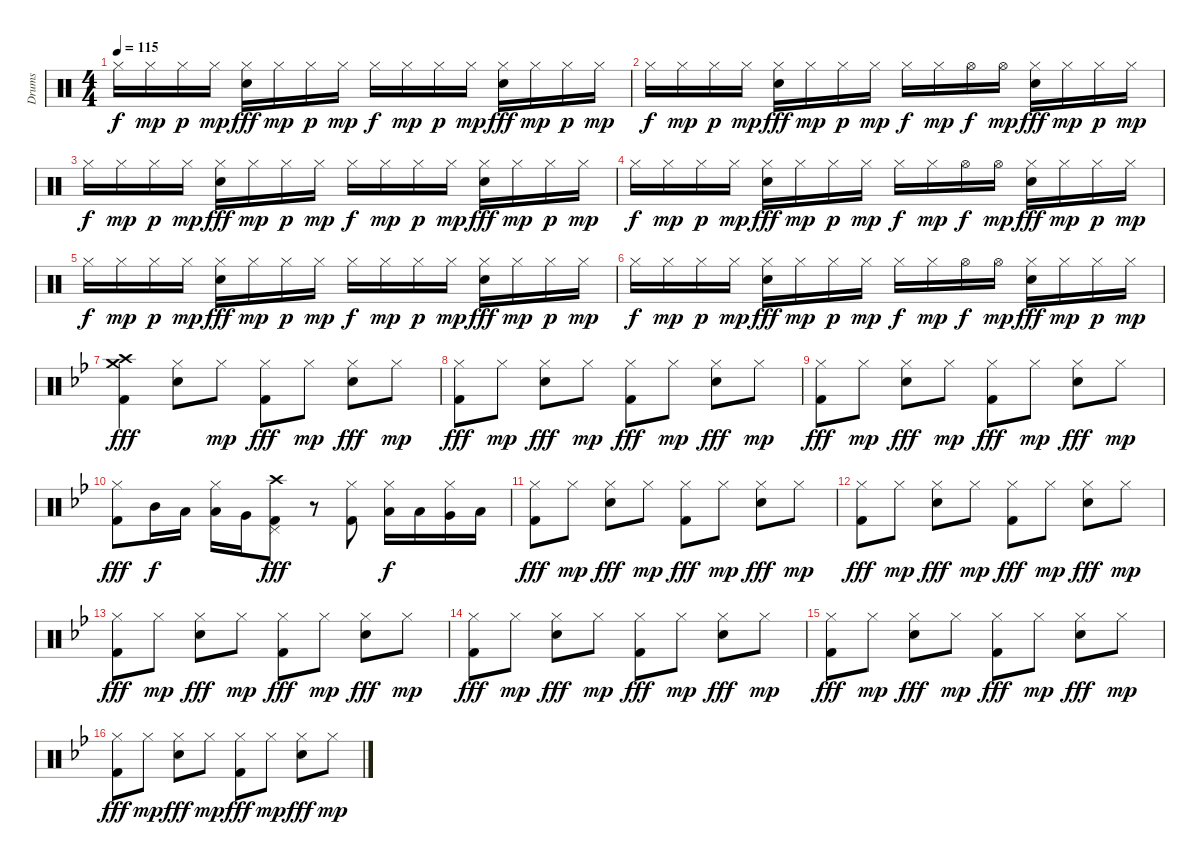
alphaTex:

\track ("Drums" "Drums") {instrument percussion}
\staff {score}
\articulation defaults
\ts (4 4)
\tempo 115
\clef neutral
\ks c "Hi-Hat (closed)".16{dy f} "Hi-Hat (closed)".16{dy mp} "Hi-Hat (closed)".16{dy p} "Hi-Hat (closed)".16{dy mp}
("Hi-Hat (closed)" "Electric Snare (hit)").16{dy fff} "Hi-Hat (closed)".16{dy mp} "Hi-Hat (closed)".16{dy p} "Hi-Hat (closed)".16{dy mp} "Hi-Hat (closed)".16{dy f} "Hi-Hat (closed)".16{dy mp} "Hi-Hat (closed)".16{dy p} "Hi-Hat (closed)".16{dy mp} ("Hi-Hat (closed)" "Electric Snare (hit)").16{dy fff} "Hi-Hat (closed)".16{dy mp} "Hi-Hat (closed)".16{dy p} "Hi-Hat (closed)".16{dy mp} |
"Hi-Hat (closed)".16{dy f} "Hi-Hat (closed)".16{dy mp} "Hi-Hat (closed)".16{dy p} "Hi-Hat (closed)".16{dy mp} ("Hi-Hat (closed)" "Electric Snare (hit)").16{dy fff} "Hi-Hat (closed)".16{dy mp} "Hi-Hat (closed)".16{dy p} "Hi-Hat (closed)".16{dy mp} "Hi-Hat (closed)".16{dy f} "Hi-Hat (closed)".16{dy mp} "Hi-Hat (open)".16{dy f} "Hi-Hat (open)".16{dy mp} ("Hi-Hat (closed)" "Electric Snare (hit)").16{dy fff} "Hi-Hat (closed)".16{dy mp} "Hi-Hat (closed)".16{dy p} "Hi-Hat (closed)".16{dy mp} |
"Hi-Hat (closed)".16{dy f} "Hi-Hat (closed)".16{dy mp} "Hi-Hat (closed)".16{dy p} "Hi-Hat (closed)".16{dy mp} ("Hi-Hat (closed)" "Electric Snare (hit)").16{dy fff} "Hi-Hat (closed)".16{dy mp} "Hi-Hat (closed)".16{dy p} "Hi-Hat (closed)".16{dy mp} "Hi-Hat (closed)".16{dy f} "Hi-Hat (closed)".16{dy mp} "Hi-Hat (closed)".16{dy p} "Hi-Hat (closed)".16{dy mp} ("Hi-Hat (closed)" "Electric Snare (hit)").16{dy fff} "Hi-Hat (closed)".16{dy mp} "Hi-Hat (closed)".16{dy p} "Hi-Hat (closed)".16{dy mp} |
"Hi-Hat (closed)".16{dy f} "Hi-Hat (closed)".16{dy mp} "Hi-Hat (closed)".16{dy p} "Hi-Hat (closed)".16{dy mp} ("Hi-Hat (closed)" "Electric Snare (hit)").16{dy fff} "Hi-Hat (closed)".16{dy mp} "Hi-Hat (closed)".16{dy p} "Hi-Hat (closed)".16{dy mp} "Hi-Hat (closed)".16{dy f} "Hi-Hat (closed)".16{dy mp} "Hi-Hat (open)".16{dy f} "Hi-Hat (open)".16{dy mp} ("Hi-Hat (closed)" "Electric Snare (hit)").16{dy fff} "Hi-Hat (closed)".16{dy mp} "Hi-Hat (closed)".16{dy p} "Hi-Hat (closed)".16{dy mp} |
"Hi-Hat (closed)".16{dy f} "Hi-Hat (closed)".16{dy mp} "Hi-Hat (closed)".16{dy p} "Hi-Hat (closed)".16{dy mp} ("Hi-Hat (closed)" "Electric Snare (hit)").16{dy fff} "Hi-Hat (closed)".16{dy mp} "Hi-Hat (closed)".16{dy p} "Hi-Hat (closed)".16{dy mp} "Hi-Hat (closed)".16{dy f} "Hi-Hat (closed)".16{dy mp} "Hi-Hat (closed)".16{dy p} "Hi-Hat (closed)".16{dy mp} ("Hi-Hat (closed)" "Electric Snare (hit)").16{dy fff} "Hi-Hat (closed)".16{dy mp} "Hi-Hat (closed)".16{dy p} "Hi-Hat (closed)".16{dy mp} |
"Hi-Hat (closed)".16{dy f} "Hi-Hat (closed)".16{dy mp} "Hi-Hat (closed)".16{dy p} "Hi-Hat (closed)".16{dy mp} ("Hi-Hat (closed)" "Electric Snare (hit)").16{dy fff} "Hi-Hat (closed)".16{dy mp} "Hi-Hat (closed)".16{dy p} "Hi-Hat (closed)".16{dy mp} "Hi-Hat (closed)".16{dy f} "Hi-Hat (closed)".16{dy mp} "Hi-Hat (open)".16{dy f} "Hi-Hat (open)".16{dy mp} ("Hi-Hat (closed)" "Electric Snare (hit)").16{dy fff} "Hi-Hat (closed)".16{dy mp} "Hi-Hat (closed)".16{dy p} "Hi-Hat (closed)".16{dy mp} |
\ks bb
("Crash high (hit)" "Crash medium (hit)" "Kick (hit) 2").4{dy fff} ("Hi-Hat (closed)" "Electric Snare (hit)").8 "Hi-Hat (closed)".8{dy mp} ("Hi-Hat (closed)" "Kick (hit) 2").8{dy fff} "Hi-Hat (closed)".8{dy mp} ("Hi-Hat (closed)" "Electric Snare (hit)").8{dy fff} "Hi-Hat (closed)".8{dy mp} |
("Hi-Hat (closed)" "Kick (hit) 2").8{dy fff} "Hi-Hat (closed)".8{dy mp} ("Hi-Hat (closed)" "Electric Snare (hit)").8{dy fff} "Hi-Hat (closed)".8{dy mp} ("Hi-Hat (closed)" "Kick (hit) 2").8{dy fff} "Hi-Hat (closed)".8{dy mp} ("Hi-Hat (closed)" "Electric Snare (hit)").8{dy fff} "Hi-Hat (closed)".8{dy mp} |
("Hi-Hat (closed)" "Kick (hit) 2").8{dy fff} "Hi-Hat (closed)".8{dy mp} ("Hi-Hat (closed)" "Electric Snare (hit)").8{dy fff} "Hi-Hat (closed)".8{dy mp} ("Hi-Hat (closed)" "Kick (hit) 2").8{dy fff} "Hi-Hat (closed)".8{dy mp} ("Hi-Hat (closed)" "Electric Snare (hit)").8{dy fff} "Hi-Hat (closed)".8{dy mp} |
("Hi-Hat (closed)" "Kick (hit) 2").8{dy fff} "Mid Tom (hit)".16{dy f} "Low Tom (hit)".16 ("Hi-Hat (closed)" "Low Tom (hit)").16 "Very Low Tom (hit)".16 ("Crash high (hit)" "Pedal Hi-Hat (hit)" "Kick (hit) 2").8{dy fff} r.8 ("Hi-Hat (closed)" "Kick (hit) 2").8 ("Hi-Hat (closed)" "Low Tom (hit)").16{dy f} "Low Tom (hit)".16 ("Hi-Hat (closed)" "Very Low Tom (hit)").16 "Low Floor Tom (hit)".16 |
("Hi-Hat (closed)" "Kick (hit) 2").8{dy fff} "Hi-Hat (closed)".8{dy mp} ("Hi-Hat (closed)" "Electric Snare (hit)").8{dy fff} "Hi-Hat (closed)".8{dy mp} ("Hi-Hat (closed)" "Kick (hit) 2").8{dy fff} "Hi-Hat (closed)".8{dy mp} ("Hi-Hat (closed)" "Electric Snare (hit)").8{dy fff} "Hi-Hat (closed)".8{dy mp} |
("Hi-Hat (closed)" "Kick (hit) 2").8{dy fff} "Hi-Hat (closed)".8{dy mp} ("Hi-Hat (closed)" "Electric Snare (hit)").8{dy fff} "Hi-Hat (closed)".8{dy mp} ("Hi-Hat (closed)" "Kick (hit) 2").8{dy fff} "Hi-Hat (closed)".8{dy mp} ("Hi-Hat (closed)" "Electric Snare (hit)").8{dy fff} "Hi-Hat (closed)".8{dy mp} |
("Hi-Hat (closed)" "Kick (hit) 2").8{dy fff} "Hi-Hat (closed)".8{dy mp} ("Hi-Hat (closed)" "Electric Snare (hit)").8{dy fff} "Hi-Hat (closed)".8{dy mp} ("Hi-Hat (closed)" "Kick (hit) 2").8{dy fff} "Hi-Hat (closed)".8{dy mp} ("Hi-Hat (closed)" "Electric Snare (hit)").8{dy fff} "Hi-Hat (closed)".8{dy mp} |
("Hi-Hat (closed)" "Kick (hit) 2").8{dy fff} "Hi-Hat (closed)".8{dy mp} ("Hi-Hat (closed)" "Electric Snare (hit)").8{dy fff} "Hi-Hat (closed)".8{dy mp} ("Hi-Hat (closed)" "Kick (hit) 2").8{dy fff} "Hi-Hat (closed)".8{dy mp} ("Hi-Hat (closed)" "Electric Snare (hit)").8{dy fff} "Hi-Hat (closed)".8{dy mp} |
("Hi-Hat (closed)" "Kick (hit) 2").8{dy fff} "Hi-Hat (closed)".8{dy mp} ("Hi-Hat (closed)" "Electric Snare (hit)").8{dy fff} "Hi-Hat (closed)".8{dy mp} ("Hi-Hat (closed)" "Kick (hit) 2").8{dy fff} "Hi-Hat (closed)".8{dy mp} ("Hi-Hat (closed)" "Electric Snare (hit)").8{dy fff} "Hi-Hat (closed)".8{dy mp} |
("Hi-Hat (closed)" "Kick (hit) 2").8{dy fff} "Hi-Hat (closed)".8{dy mp} ("Hi-Hat (closed)" "Electric Snare (hit)").8{dy fff} "Hi-Hat (closed)".8{dy mp} ("Hi-Hat (closed)" "Kick (hit) 2").8{dy fff} "Hi-Hat (closed)".8{dy mp} ("Hi-Hat (closed)" "Electric Snare (hit)").8{dy fff} "Hi-Hat (closed)".8{dy mp}
